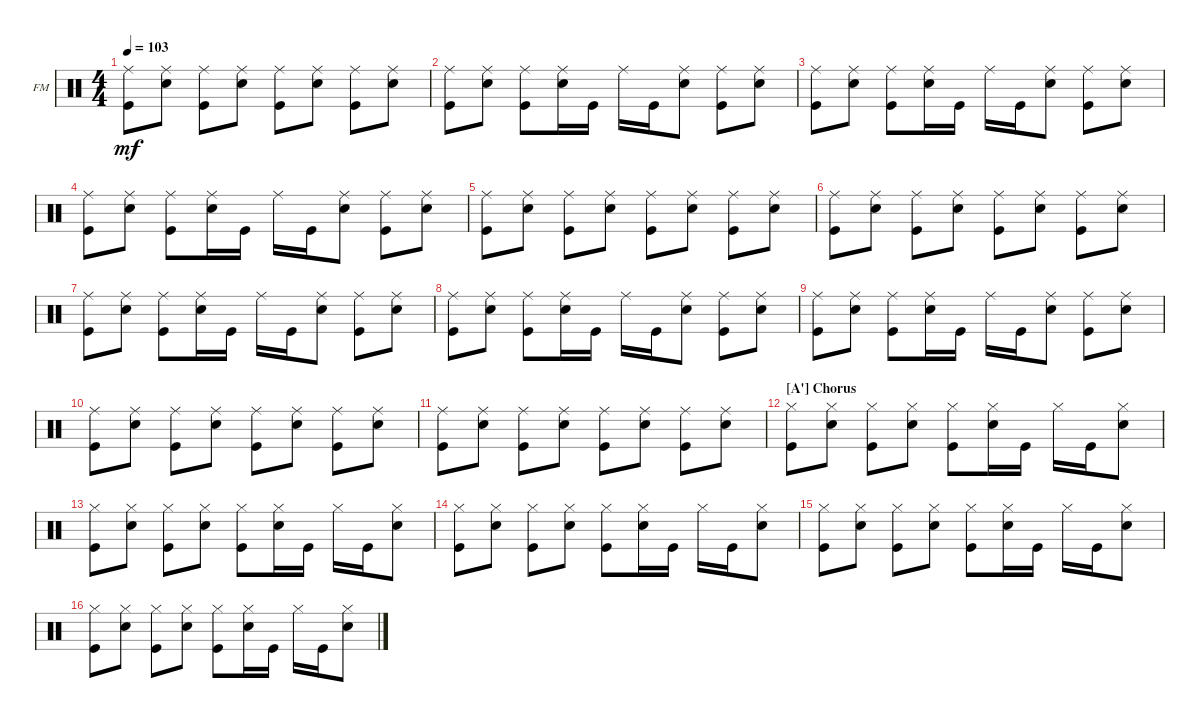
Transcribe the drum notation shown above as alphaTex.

\defaultSystemsLayout 4
\bracketExtendMode groupsimilarinstruments
\firstSystemTrackNameOrientation horizontal
\otherSystemsTrackNameOrientation horizontal
\track ("Fabrizio Moretti" "FM") {instrument percussion}
\staff {score}
\articulation defaults
\ts (4 4)
\tempo 103
\clef neutral
\ks c
("Kick (hit)" "Ride (middle)").8{dy mf} ("Snare (hit) 2" "Ride (middle)").8 ("Kick (hit)" "Ride (middle)").8 ("Snare (hit) 2" "Ride (middle)").8 ("Kick (hit)" "Ride (middle)").8 ("Snare (hit) 2" "Ride (middle)").8 ("Kick (hit)" "Ride (middle)").8 ("Snare (hit) 2" "Ride (middle)").8 |
("Kick (hit)" "Ride (middle)").8 ("Snare (hit) 2" "Ride (middle)").8 ("Kick (hit)" "Ride (middle)").8 ("Snare (hit) 2" "Ride (middle)").16 "Kick (hit)".16 "Ride (middle)".16 "Kick (hit)".16 ("Snare (hit) 2" "Ride (middle)").8 ("Kick (hit)" "Ride (middle)").8 ("Snare (hit) 2" "Ride (middle)").8 |
("Kick (hit)" "Ride (middle)").8 ("Snare (hit) 2" "Ride (middle)").8 ("Kick (hit)" "Ride (middle)").8 ("Snare (hit) 2" "Ride (middle)").16 "Kick (hit)".16 "Ride (middle)".16 "Kick (hit)".16 ("Snare (hit) 2" "Ride (middle)").8 ("Kick (hit)" "Ride (middle)").8 ("Snare (hit) 2" "Ride (middle)").8 |
("Kick (hit)" "Ride (middle)").8 ("Snare (hit) 2" "Ride (middle)").8 ("Kick (hit)" "Ride (middle)").8 ("Snare (hit) 2" "Ride (middle)").16 "Kick (hit)".16 "Ride (middle)".16 "Kick (hit)".16 ("Snare (hit) 2" "Ride (middle)").8 ("Kick (hit)" "Ride (middle)").8 ("Snare (hit) 2" "Ride (middle)").8 |
("Kick (hit)" "Ride (middle)").8 ("Snare (hit) 2" "Ride (middle)").8 ("Kick (hit)" "Ride (middle)").8 ("Snare (hit) 2" "Ride (middle)").8 ("Kick (hit)" "Ride (middle)").8 ("Snare (hit) 2" "Ride (middle)").8 ("Kick (hit)" "Ride (middle)").8 ("Snare (hit) 2" "Ride (middle)").8 |
("Kick (hit)" "Ride (middle)").8 ("Snare (hit) 2" "Ride (middle)").8 ("Kick (hit)" "Ride (middle)").8 ("Snare (hit) 2" "Ride (middle)").8 ("Kick (hit)" "Ride (middle)").8 ("Snare (hit) 2" "Ride (middle)").8 ("Kick (hit)" "Ride (middle)").8 ("Snare (hit) 2" "Ride (middle)").8 |
("Kick (hit)" "Ride (middle)").8 ("Snare (hit) 2" "Ride (middle)").8 ("Kick (hit)" "Ride (middle)").8 ("Snare (hit) 2" "Ride (middle)").16 "Kick (hit)".16 "Ride (middle)".16 "Kick (hit)".16 ("Snare (hit) 2" "Ride (middle)").8 ("Kick (hit)" "Ride (middle)").8 ("Snare (hit) 2" "Ride (middle)").8 |
("Kick (hit)" "Ride (middle)").8 ("Snare (hit) 2" "Ride (middle)").8 ("Kick (hit)" "Ride (middle)").8 ("Snare (hit) 2" "Ride (middle)").16 "Kick (hit)".16 "Ride (middle)".16 "Kick (hit)".16 ("Snare (hit) 2" "Ride (middle)").8 ("Kick (hit)" "Ride (middle)").8 ("Snare (hit) 2" "Ride (middle)").8 |
("Kick (hit)" "Ride (middle)").8 ("Snare (hit) 2" "Ride (middle)").8 ("Kick (hit)" "Ride (middle)").8 ("Snare (hit) 2" "Ride (middle)").16 "Kick (hit)".16 "Ride (middle)".16 "Kick (hit)".16 ("Snare (hit) 2" "Ride (middle)").8 ("Kick (hit)" "Ride (middle)").8 ("Snare (hit) 2" "Ride (middle)").8 |
("Kick (hit)" "Ride (middle)").8 ("Snare (hit) 2" "Ride (middle)").8 ("Kick (hit)" "Ride (middle)").8 ("Snare (hit) 2" "Ride (middle)").8 ("Kick (hit)" "Ride (middle)").8 ("Snare (hit) 2" "Ride (middle)").8 ("Kick (hit)" "Ride (middle)").8 ("Snare (hit) 2" "Ride (middle)").8 |
("Kick (hit)" "Ride (middle)").8 ("Snare (hit) 2" "Ride (middle)").8 ("Kick (hit)" "Ride (middle)").8 ("Snare (hit) 2" "Ride (middle)").8 ("Kick (hit)" "Ride (middle)").8 ("Snare (hit) 2" "Ride (middle)").8 ("Kick (hit)" "Ride (middle)").8 ("Snare (hit) 2" "Ride (middle)").8 |
\section ("A'" "Chorus")
("Kick (hit)" "Hi-Hat (closed)").8 ("Snare (hit) 2" "Hi-Hat (closed)").8 ("Kick (hit)" "Hi-Hat (closed)").8 ("Snare (hit) 2" "Hi-Hat (closed)").8 ("Kick (hit)" "Hi-Hat (closed)").8 ("Snare (hit) 2" "Hi-Hat (closed)").16 "Kick (hit)".16 "Hi-Hat (closed)".16 "Kick (hit)".16 ("Snare (hit) 2" "Hi-Hat (closed)").8 |
("Kick (hit)" "Hi-Hat (closed)").8 ("Snare (hit) 2" "Hi-Hat (closed)").8 ("Kick (hit)" "Hi-Hat (closed)").8 ("Snare (hit) 2" "Hi-Hat (closed)").8 ("Kick (hit)" "Hi-Hat (closed)").8 ("Snare (hit) 2" "Hi-Hat (closed)").16 "Kick (hit)".16 "Hi-Hat (closed)".16 "Kick (hit)".16 ("Snare (hit) 2" "Hi-Hat (closed)").8 |
("Kick (hit)" "Hi-Hat (closed)").8 ("Snare (hit) 2" "Hi-Hat (closed)").8 ("Kick (hit)" "Hi-Hat (closed)").8 ("Snare (hit) 2" "Hi-Hat (closed)").8 ("Kick (hit)" "Hi-Hat (closed)").8 ("Snare (hit) 2" "Hi-Hat (closed)").16 "Kick (hit)".16 "Hi-Hat (closed)".16 "Kick (hit)".16 ("Snare (hit) 2" "Hi-Hat (closed)").8 |
("Kick (hit)" "Hi-Hat (closed)").8 ("Snare (hit) 2" "Hi-Hat (closed)").8 ("Kick (hit)" "Hi-Hat (closed)").8 ("Snare (hit) 2" "Hi-Hat (closed)").8 ("Kick (hit)" "Hi-Hat (closed)").8 ("Snare (hit) 2" "Hi-Hat (closed)").16 "Kick (hit)".16 "Hi-Hat (closed)".16 "Kick (hit)".16 ("Snare (hit) 2" "Hi-Hat (closed)").8 |
("Kick (hit)" "Hi-Hat (closed)").8 ("Snare (hit) 2" "Hi-Hat (closed)").8 ("Kick (hit)" "Hi-Hat (closed)").8 ("Snare (hit) 2" "Hi-Hat (closed)").8 ("Kick (hit)" "Hi-Hat (closed)").8 ("Snare (hit) 2" "Hi-Hat (closed)").16 "Kick (hit)".16 "Hi-Hat (closed)".16 "Kick (hit)".16 ("Snare (hit) 2" "Hi-Hat (closed)").8
